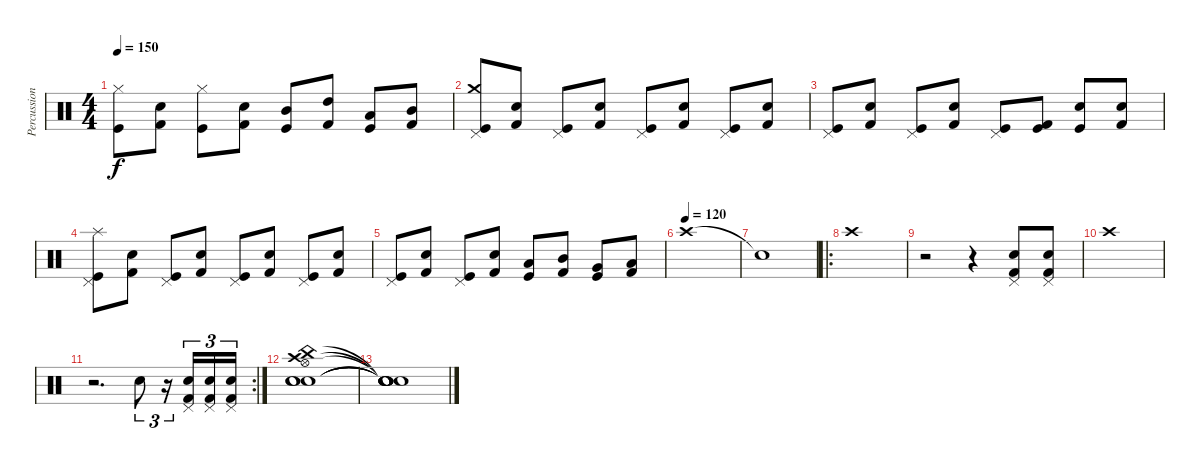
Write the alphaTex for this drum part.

\track ("Percussion" "Percussion") {instrument percussion}
\staff {score}
\articulation defaults
\ts (4 4)
\tempo 150
\clef neutral
\ks c
("Kick (hit)" "Hi-Hat (closed)").8{dy f} ("Kick (hit) 2" "Snare (hit) 2").8 ("Kick (hit)" "Hi-Hat (closed)").8 ("Kick (hit) 2" "Snare (hit) 2").8 ("Kick (hit)" "Mid Tom (hit)").8 ("Kick (hit) 2" "High Tom (hit)").8 ("Kick (hit)" "Low Tom (hit)").8 ("Kick (hit) 2" "Mid Tom (hit)").8 |
("Crash medium (hit)" "Kick (hit)" "Pedal Hi-Hat (hit)").8 ("Kick (hit) 2" "Electric Snare (hit)").8 ("Kick (hit)" "Pedal Hi-Hat (hit)").8 ("Kick (hit) 2" "Electric Snare (hit)").8 ("Kick (hit)" "Pedal Hi-Hat (hit)").8 ("Kick (hit) 2" "Electric Snare (hit)").8 ("Kick (hit)" "Pedal Hi-Hat (hit)").8 ("Kick (hit) 2" "Electric Snare (hit)").8 |
("Kick (hit)" "Pedal Hi-Hat (hit)").8 ("Kick (hit) 2" "Electric Snare (hit)").8 ("Kick (hit)" "Pedal Hi-Hat (hit)").8 ("Kick (hit) 2" "Electric Snare (hit)").8 ("Kick (hit)" "Pedal Hi-Hat (hit)").8 ("Kick (hit)" "Kick (hit) 2").8 ("Kick (hit)" "Electric Snare (hit)").8 ("Kick (hit) 2" "Electric Snare (hit)").8 |
("Splash (hit)" "Kick (hit)" "Pedal Hi-Hat (hit)").8 ("Kick (hit) 2" "Electric Snare (hit)").8 ("Kick (hit)" "Pedal Hi-Hat (hit)").8 ("Kick (hit) 2" "Electric Snare (hit)").8 ("Kick (hit)" "Pedal Hi-Hat (hit)").8 ("Kick (hit) 2" "Electric Snare (hit)").8 ("Kick (hit)" "Pedal Hi-Hat (hit)").8 ("Kick (hit) 2" "Electric Snare (hit)").8 |
("Kick (hit)" "Pedal Hi-Hat (hit)").8 ("Kick (hit) 2" "Electric Snare (hit)").8 ("Kick (hit)" "Pedal Hi-Hat (hit)").8 ("Kick (hit) 2" "Electric Snare (hit)").8 ("Kick (hit)" "Low Tom (hit)").8 ("Kick (hit) 2" "Mid Tom (hit)").8 ("Kick (hit)" "Very Low Tom (hit)").8 ("Kick (hit) 2" "Low Tom (hit)").8 |
\tempo (120)
"Crash high (hit)".1 |
"Snare (hit)"{t}.1 |
\ro "Crash high (hit)".1
|
r.2 r.4 ("Kick (hit) 2" "Snare (hit) 2" "Pedal Hi-Hat (hit)").8 ("Kick (hit) 2" "Snare (hit) 2" "Pedal Hi-Hat (hit)").8 |
"Crash high (hit)".1 |
\rc 2
r.2{d} "Snare (hit) 2".8{tu (3 2)} r.16{tu (3 2)} ("Kick (hit) 2" "Pedal Hi-Hat (hit)" "Snare (hit) 2").16{tu (3 2)} ("Kick (hit) 2" "Pedal Hi-Hat (hit)" "Snare (hit) 2").16{tu (3 2)} ("Kick (hit) 2" "Pedal Hi-Hat (hit)" "Snare (hit) 2").16{tu (3 2)} |
("Electric Snare (hit)" "Snare (hit) 2" "Electric Snare (hit)" "Hi-Hat (open)" "Crash high (hit)" "China (hit)").1 |
("Snare (hit)"{t} "Snare (hit)"{t} "Snare (hit)"{t} "Snare (hit)"{t} "Snare (hit)"{t} "Snare (hit)"{t}).1
